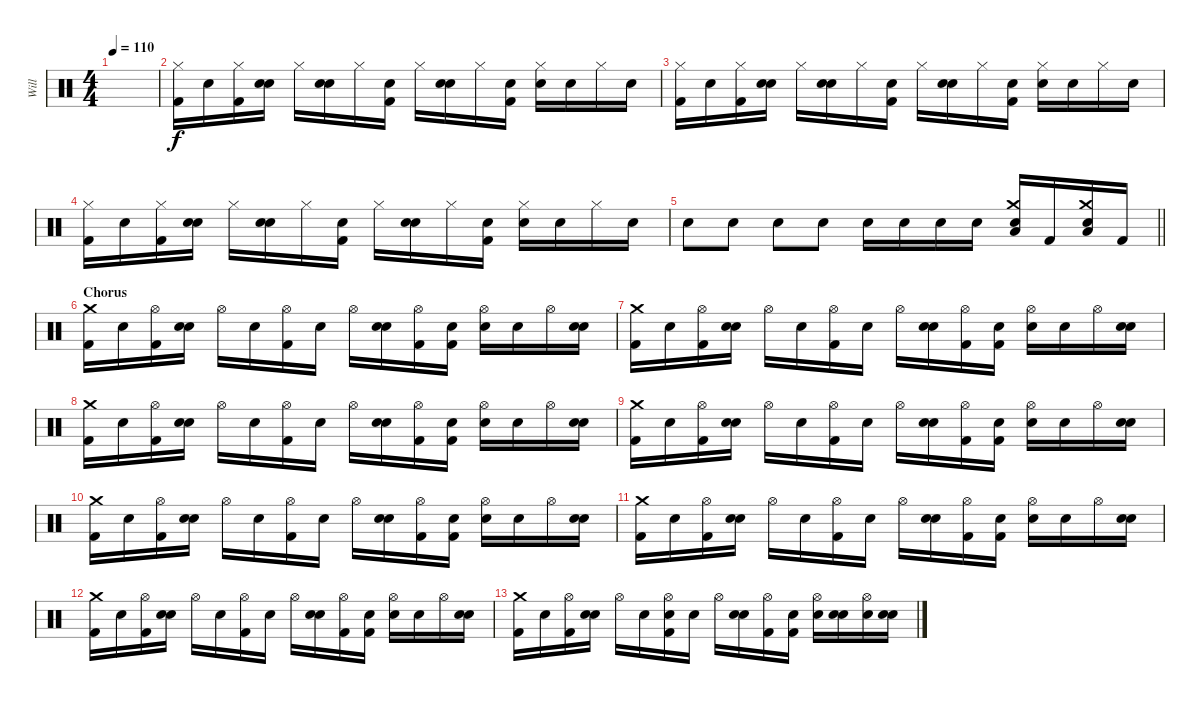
\track ("Will" "Will") {instrument percussion}
\staff {score}
\articulation defaults
\ts (4 4)
\tempo 110
\clef neutral
\ks c
|
("Hi-Hat (closed)" "Kick (hit) 2").16{volume 9} "Snare (hit)".16 ("Hi-Hat (closed)" "Kick (hit) 2").16 ("Snare (hit)" "Snare (hit) 2").16 "Hi-Hat (closed)".16 ("Snare (hit)" "Snare (hit) 2").16 "Hi-Hat (closed)".16 ("Snare (hit)" "Kick (hit) 2").16 "Hi-Hat (closed)".16 ("Snare (hit)" "Snare (hit) 2").16 "Hi-Hat (closed)".16 ("Snare (hit)" "Kick (hit) 2").16 ("Hi-Hat (closed)" "Snare (hit) 2").16 "Snare (hit)".16 "Hi-Hat (closed)".16 "Snare (hit)".16 |
("Hi-Hat (closed)" "Kick (hit) 2").16 "Snare (hit)".16 ("Hi-Hat (closed)" "Kick (hit) 2").16 ("Snare (hit)" "Snare (hit) 2").16 "Hi-Hat (closed)".16 ("Snare (hit)" "Snare (hit) 2").16 "Hi-Hat (closed)".16 ("Snare (hit)" "Kick (hit) 2").16 "Hi-Hat (closed)".16 ("Snare (hit)" "Snare (hit) 2").16 "Hi-Hat (closed)".16 ("Snare (hit)" "Kick (hit) 2").16 ("Hi-Hat (closed)" "Snare (hit) 2").16 "Snare (hit)".16 "Hi-Hat (closed)".16 "Snare (hit)".16 |
("Hi-Hat (closed)" "Kick (hit) 2").16 "Snare (hit)".16 ("Hi-Hat (closed)" "Kick (hit) 2").16 ("Snare (hit)" "Snare (hit) 2").16 "Hi-Hat (closed)".16 ("Snare (hit)" "Snare (hit) 2").16 "Hi-Hat (closed)".16 ("Snare (hit)" "Kick (hit) 2").16 "Hi-Hat (closed)".16 ("Snare (hit)" "Snare (hit) 2").16 "Hi-Hat (closed)".16 ("Snare (hit)" "Kick (hit) 2").16 ("Hi-Hat (closed)" "Snare (hit) 2").16 "Snare (hit)".16 "Hi-Hat (closed)".16 "Snare (hit)".16 |
\barLineRight lightlight "Electric Snare (hit)".8{volume 13} "Electric Snare (hit)".8 "Electric Snare (hit)".8 "Electric Snare (hit)".8 "Electric Snare (hit)".16 "Electric Snare (hit)".16 "Electric Snare (hit)".16 "Electric Snare (hit)".16
("Crash medium (hit)" "Electric Snare (hit)" "Low Tom (hit)").16 "Kick (hit) 2".16 ("Crash medium (hit)" "Electric Snare (hit)" "Low Tom (hit)").16 "Kick (hit) 2".16 |
\section ("" "Chorus")
("Crash medium (hit)" "Kick (hit) 2").16 "Snare (hit)".16 ("Hi-Hat (open)" "Kick (hit) 2").16 ("Snare (hit)" "Electric Snare (hit)").16 "Hi-Hat (open)".16 "Snare (hit)".16 ("Hi-Hat (open)" "Kick (hit) 2").16 "Snare (hit)".16 "Hi-Hat (open)".16 ("Snare (hit)" "Electric Snare (hit)").16 ("Hi-Hat (open)" "Kick (hit) 2").16 ("Snare (hit)" "Kick (hit) 2").16 ("Hi-Hat (open)" "Electric Snare (hit)").16 "Snare (hit)".16 "Hi-Hat (open)".16 ("Snare (hit)" "Electric Snare (hit)").16 |
("Crash medium (hit)" "Kick (hit) 2").16 "Snare (hit)".16 ("Hi-Hat (open)" "Kick (hit) 2").16 ("Snare (hit)" "Electric Snare (hit)").16 "Hi-Hat (open)".16 "Snare (hit)".16 ("Hi-Hat (open)" "Kick (hit) 2").16 "Snare (hit)".16 "Hi-Hat (open)".16 ("Snare (hit)" "Electric Snare (hit)").16 ("Hi-Hat (open)" "Kick (hit) 2").16 ("Snare (hit)" "Kick (hit) 2").16 ("Hi-Hat (open)" "Electric Snare (hit)").16 "Snare (hit)".16 "Hi-Hat (open)".16 ("Snare (hit)" "Electric Snare (hit)").16 |
("Crash medium (hit)" "Kick (hit) 2").16 "Snare (hit)".16 ("Hi-Hat (open)" "Kick (hit) 2").16 ("Snare (hit)" "Electric Snare (hit)").16 "Hi-Hat (open)".16 "Snare (hit)".16 ("Hi-Hat (open)" "Kick (hit) 2").16 "Snare (hit)".16 "Hi-Hat (open)".16 ("Snare (hit)" "Electric Snare (hit)").16 ("Hi-Hat (open)" "Kick (hit) 2").16 ("Snare (hit)" "Kick (hit) 2").16 ("Hi-Hat (open)" "Electric Snare (hit)").16 "Snare (hit)".16 "Hi-Hat (open)".16 ("Snare (hit)" "Electric Snare (hit)").16 |
("Crash medium (hit)" "Kick (hit) 2").16 "Snare (hit)".16 ("Hi-Hat (open)" "Kick (hit) 2").16 ("Snare (hit)" "Electric Snare (hit)").16 "Hi-Hat (open)".16 "Snare (hit)".16 ("Hi-Hat (open)" "Kick (hit) 2").16 "Snare (hit)".16 "Hi-Hat (open)".16 ("Snare (hit)" "Electric Snare (hit)").16 ("Hi-Hat (open)" "Kick (hit) 2").16 ("Snare (hit)" "Kick (hit) 2").16 ("Hi-Hat (open)" "Electric Snare (hit)").16 "Snare (hit)".16 "Hi-Hat (open)".16 ("Snare (hit)" "Electric Snare (hit)").16 |
("Crash medium (hit)" "Kick (hit) 2").16 "Snare (hit)".16 ("Hi-Hat (open)" "Kick (hit) 2").16 ("Snare (hit)" "Electric Snare (hit)").16 "Hi-Hat (open)".16 "Snare (hit)".16 ("Hi-Hat (open)" "Kick (hit) 2").16 "Snare (hit)".16 "Hi-Hat (open)".16 ("Snare (hit)" "Electric Snare (hit)").16 ("Hi-Hat (open)" "Kick (hit) 2").16 ("Snare (hit)" "Kick (hit) 2").16 ("Hi-Hat (open)" "Electric Snare (hit)").16 "Snare (hit)".16 "Hi-Hat (open)".16 ("Snare (hit)" "Electric Snare (hit)").16 |
("Crash medium (hit)" "Kick (hit) 2").16 "Snare (hit)".16 ("Hi-Hat (open)" "Kick (hit) 2").16 ("Snare (hit)" "Electric Snare (hit)").16 "Hi-Hat (open)".16 "Snare (hit)".16 ("Hi-Hat (open)" "Kick (hit) 2").16 "Snare (hit)".16 "Hi-Hat (open)".16 ("Snare (hit)" "Electric Snare (hit)").16 ("Hi-Hat (open)" "Kick (hit) 2").16 ("Snare (hit)" "Kick (hit) 2").16 ("Hi-Hat (open)" "Electric Snare (hit)").16 "Snare (hit)".16 "Hi-Hat (open)".16 ("Snare (hit)" "Electric Snare (hit)").16 |
("Crash medium (hit)" "Kick (hit) 2").16 "Snare (hit)".16 ("Hi-Hat (open)" "Kick (hit) 2").16 ("Snare (hit)" "Electric Snare (hit)").16 "Hi-Hat (open)".16 "Snare (hit)".16 ("Hi-Hat (open)" "Kick (hit) 2").16 "Snare (hit)".16 "Hi-Hat (open)".16 ("Snare (hit)" "Electric Snare (hit)").16 ("Hi-Hat (open)" "Kick (hit) 2").16 ("Snare (hit)" "Kick (hit) 2").16 ("Hi-Hat (open)" "Electric Snare (hit)").16 "Snare (hit)".16 "Hi-Hat (open)".16 ("Snare (hit)" "Electric Snare (hit)").16 |
("Crash medium (hit)" "Kick (hit) 2").16 "Snare (hit)".16 ("Hi-Hat (open)" "Kick (hit) 2").16 ("Snare (hit)" "Electric Snare (hit)").16 "Hi-Hat (open)".16 "Snare (hit)".16 ("Hi-Hat (open)" "Electric Snare (hit)" "Kick (hit) 2").16 "Snare (hit)".16 "Hi-Hat (open)".16 ("Snare (hit)" "Electric Snare (hit)").16 ("Hi-Hat (open)" "Kick (hit) 2").16 ("Snare (hit)" "Kick (hit) 2").16 ("Hi-Hat (open)" "Electric Snare (hit)").16 ("Snare (hit)" "Electric Snare (hit)").16 ("Hi-Hat (open)" "Electric Snare (hit)").16 ("Snare (hit)" "Electric Snare (hit)").16
